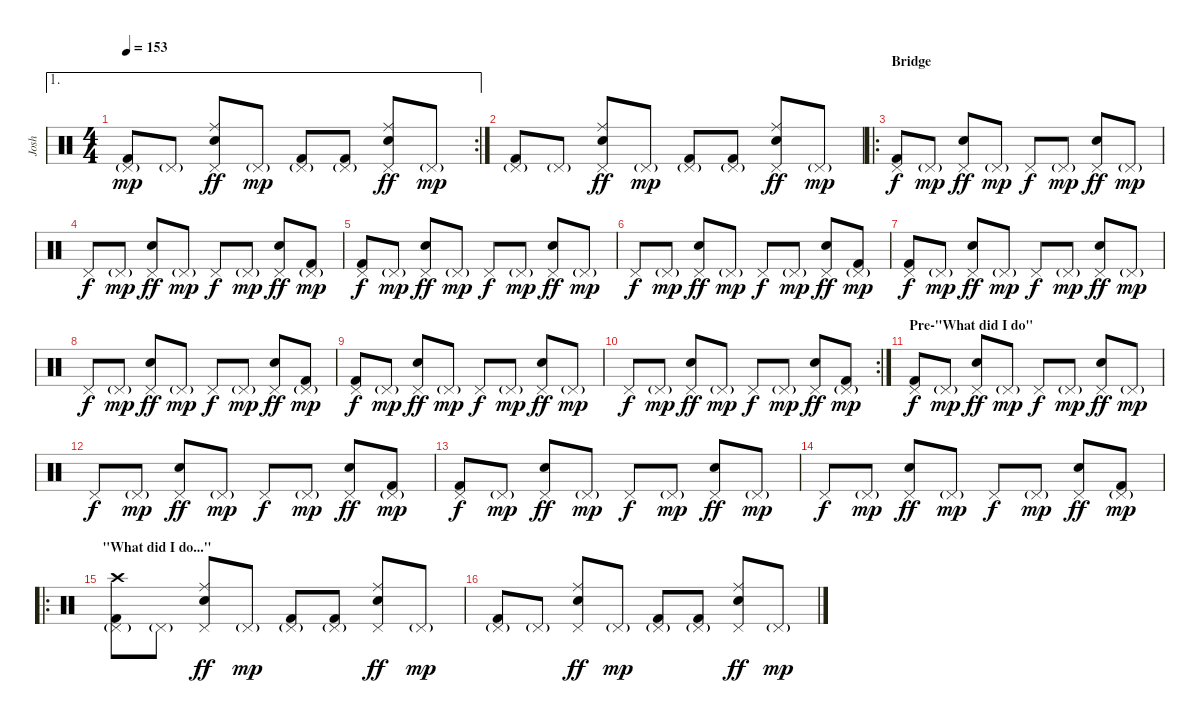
\track ("Josh" "Josh") {instrument percussion}
\staff {score}
\articulation defaults
\ae 1
\rc 2
\ts (4 4)
\tempo 153
\clef neutral
\ks c
("Pedal Hi-Hat (hit)"{g} "Kick (hit) 2").8{dy mp} "Pedal Hi-Hat (hit)"{g}.8 ("Ride (middle)" "Pedal Hi-Hat (hit)" "Electric Snare (hit)").8{dy ff} "Pedal Hi-Hat (hit)"{g}.8{dy mp} ("Pedal Hi-Hat (hit)"{g} "Kick (hit) 2").8 ("Pedal Hi-Hat (hit)"{g} "Kick (hit) 2").8 ("Ride (middle)" "Pedal Hi-Hat (hit)" "Electric Snare (hit)").8{dy ff} "Pedal Hi-Hat (hit)"{g}.8{dy mp} |
("Pedal Hi-Hat (hit)"{g} "Kick (hit) 2").8 "Pedal Hi-Hat (hit)"{g}.8 ("Ride (middle)" "Pedal Hi-Hat (hit)" "Electric Snare (hit)").8{dy ff} "Pedal Hi-Hat (hit)"{g}.8{dy mp} ("Pedal Hi-Hat (hit)"{g} "Kick (hit) 2").8 ("Pedal Hi-Hat (hit)"{g} "Kick (hit) 2").8 ("Ride (middle)" "Pedal Hi-Hat (hit)" "Electric Snare (hit)").8{dy ff} "Pedal Hi-Hat (hit)"{g}.8{dy mp} |
\ro
\section ("" "Bridge")
("Pedal Hi-Hat (hit)" "Kick (hit) 2").8{dy f} "Pedal Hi-Hat (hit)"{g}.8{dy mp} ("Pedal Hi-Hat (hit)" "Electric Snare (hit)").8{dy ff} "Pedal Hi-Hat (hit)"{g}.8{dy mp} "Pedal Hi-Hat (hit)".8{dy f} "Pedal Hi-Hat (hit)"{g}.8{dy mp} ("Pedal Hi-Hat (hit)" "Electric Snare (hit)").8{dy ff} "Pedal Hi-Hat (hit)"{g}.8{dy mp} |
"Pedal Hi-Hat (hit)".8{dy f} "Pedal Hi-Hat (hit)"{g}.8{dy mp} ("Pedal Hi-Hat (hit)" "Electric Snare (hit)").8{dy ff} "Pedal Hi-Hat (hit)"{g}.8{dy mp} "Pedal Hi-Hat (hit)".8{dy f} "Pedal Hi-Hat (hit)"{g}.8{dy mp} ("Pedal Hi-Hat (hit)" "Electric Snare (hit)").8{dy ff} ("Pedal Hi-Hat (hit)"{g} "Kick (hit) 2").8{dy mp} |
("Pedal Hi-Hat (hit)" "Kick (hit) 2").8{dy f} "Pedal Hi-Hat (hit)"{g}.8{dy mp} ("Pedal Hi-Hat (hit)" "Electric Snare (hit)").8{dy ff} "Pedal Hi-Hat (hit)"{g}.8{dy mp} "Pedal Hi-Hat (hit)".8{dy f} "Pedal Hi-Hat (hit)"{g}.8{dy mp} ("Pedal Hi-Hat (hit)" "Electric Snare (hit)").8{dy ff} "Pedal Hi-Hat (hit)"{g}.8{dy mp} |
"Pedal Hi-Hat (hit)".8{dy f} "Pedal Hi-Hat (hit)"{g}.8{dy mp} ("Pedal Hi-Hat (hit)" "Electric Snare (hit)").8{dy ff} "Pedal Hi-Hat (hit)"{g}.8{dy mp} "Pedal Hi-Hat (hit)".8{dy f} "Pedal Hi-Hat (hit)"{g}.8{dy mp} ("Pedal Hi-Hat (hit)" "Electric Snare (hit)").8{dy ff} ("Pedal Hi-Hat (hit)"{g} "Kick (hit) 2").8{dy mp} |
("Pedal Hi-Hat (hit)" "Kick (hit) 2").8{dy f} "Pedal Hi-Hat (hit)"{g}.8{dy mp} ("Pedal Hi-Hat (hit)" "Electric Snare (hit)").8{dy ff} "Pedal Hi-Hat (hit)"{g}.8{dy mp} "Pedal Hi-Hat (hit)".8{dy f} "Pedal Hi-Hat (hit)"{g}.8{dy mp} ("Pedal Hi-Hat (hit)" "Electric Snare (hit)").8{dy ff} "Pedal Hi-Hat (hit)"{g}.8{dy mp} |
"Pedal Hi-Hat (hit)".8{dy f} "Pedal Hi-Hat (hit)"{g}.8{dy mp} ("Pedal Hi-Hat (hit)" "Electric Snare (hit)").8{dy ff} "Pedal Hi-Hat (hit)"{g}.8{dy mp} "Pedal Hi-Hat (hit)".8{dy f} "Pedal Hi-Hat (hit)"{g}.8{dy mp} ("Pedal Hi-Hat (hit)" "Electric Snare (hit)").8{dy ff} ("Pedal Hi-Hat (hit)"{g} "Kick (hit) 2").8{dy mp} |
("Pedal Hi-Hat (hit)" "Kick (hit) 2").8{dy f} "Pedal Hi-Hat (hit)"{g}.8{dy mp} ("Pedal Hi-Hat (hit)" "Electric Snare (hit)").8{dy ff} "Pedal Hi-Hat (hit)"{g}.8{dy mp} "Pedal Hi-Hat (hit)".8{dy f} "Pedal Hi-Hat (hit)"{g}.8{dy mp} ("Pedal Hi-Hat (hit)" "Electric Snare (hit)").8{dy ff} "Pedal Hi-Hat (hit)"{g}.8{dy mp} |
\rc 2 "Pedal Hi-Hat (hit)".8{dy f} "Pedal Hi-Hat (hit)"{g}.8{dy mp}
("Pedal Hi-Hat (hit)" "Electric Snare (hit)").8{dy ff} "Pedal Hi-Hat (hit)"{g}.8{dy mp} "Pedal Hi-Hat (hit)".8{dy f} "Pedal Hi-Hat (hit)"{g}.8{dy mp} ("Pedal Hi-Hat (hit)" "Electric Snare (hit)").8{dy ff} ("Pedal Hi-Hat (hit)"{g} "Kick (hit) 2").8{dy mp} |
\section ("" "Pre-\"What did I do\"")
("Pedal Hi-Hat (hit)" "Kick (hit) 2").8{dy f} "Pedal Hi-Hat (hit)"{g}.8{dy mp} ("Pedal Hi-Hat (hit)" "Electric Snare (hit)").8{dy ff} "Pedal Hi-Hat (hit)"{g}.8{dy mp} "Pedal Hi-Hat (hit)".8{dy f} "Pedal Hi-Hat (hit)"{g}.8{dy mp} ("Pedal Hi-Hat (hit)" "Electric Snare (hit)").8{dy ff} "Pedal Hi-Hat (hit)"{g}.8{dy mp} |
"Pedal Hi-Hat (hit)".8{dy f} "Pedal Hi-Hat (hit)"{g}.8{dy mp} ("Pedal Hi-Hat (hit)" "Electric Snare (hit)").8{dy ff} "Pedal Hi-Hat (hit)"{g}.8{dy mp} "Pedal Hi-Hat (hit)".8{dy f} "Pedal Hi-Hat (hit)"{g}.8{dy mp} ("Pedal Hi-Hat (hit)" "Electric Snare (hit)").8{dy ff} ("Pedal Hi-Hat (hit)"{g} "Kick (hit) 2").8{dy mp} |
("Pedal Hi-Hat (hit)" "Kick (hit) 2").8{dy f} "Pedal Hi-Hat (hit)"{g}.8{dy mp} ("Pedal Hi-Hat (hit)" "Electric Snare (hit)").8{dy ff} "Pedal Hi-Hat (hit)"{g}.8{dy mp} "Pedal Hi-Hat (hit)".8{dy f} "Pedal Hi-Hat (hit)"{g}.8{dy mp} ("Pedal Hi-Hat (hit)" "Electric Snare (hit)").8{dy ff} "Pedal Hi-Hat (hit)"{g}.8{dy mp} |
"Pedal Hi-Hat (hit)".8{dy f} "Pedal Hi-Hat (hit)"{g}.8{dy mp} ("Pedal Hi-Hat (hit)" "Electric Snare (hit)").8{dy ff} "Pedal Hi-Hat (hit)"{g}.8{dy mp} "Pedal Hi-Hat (hit)".8{dy f} "Pedal Hi-Hat (hit)"{g}.8{dy mp} ("Pedal Hi-Hat (hit)" "Electric Snare (hit)").8{dy ff} ("Pedal Hi-Hat (hit)"{g} "Kick (hit) 2").8{dy mp} |
\ro
\section ("" "\"What did I do...\"")
("Crash high (hit)" "Pedal Hi-Hat (hit)"{g} "Kick (hit) 2").8 "Pedal Hi-Hat (hit)"{g}.8 ("Ride (middle)" "Pedal Hi-Hat (hit)" "Electric Snare (hit)").8{dy ff} "Pedal Hi-Hat (hit)"{g}.8{dy mp} ("Pedal Hi-Hat (hit)"{g} "Kick (hit) 2").8 ("Pedal Hi-Hat (hit)"{g} "Kick (hit) 2").8 ("Ride (middle)" "Pedal Hi-Hat (hit)" "Electric Snare (hit)").8{dy ff} "Pedal Hi-Hat (hit)"{g}.8{dy mp} |
("Pedal Hi-Hat (hit)"{g} "Kick (hit) 2").8 "Pedal Hi-Hat (hit)"{g}.8 ("Ride (middle)" "Pedal Hi-Hat (hit)" "Electric Snare (hit)").8{dy ff} "Pedal Hi-Hat (hit)"{g}.8{dy mp} ("Pedal Hi-Hat (hit)"{g} "Kick (hit) 2").8 ("Pedal Hi-Hat (hit)"{g} "Kick (hit) 2").8 ("Ride (middle)" "Pedal Hi-Hat (hit)" "Electric Snare (hit)").8{dy ff} "Pedal Hi-Hat (hit)"{g}.8{dy mp}
